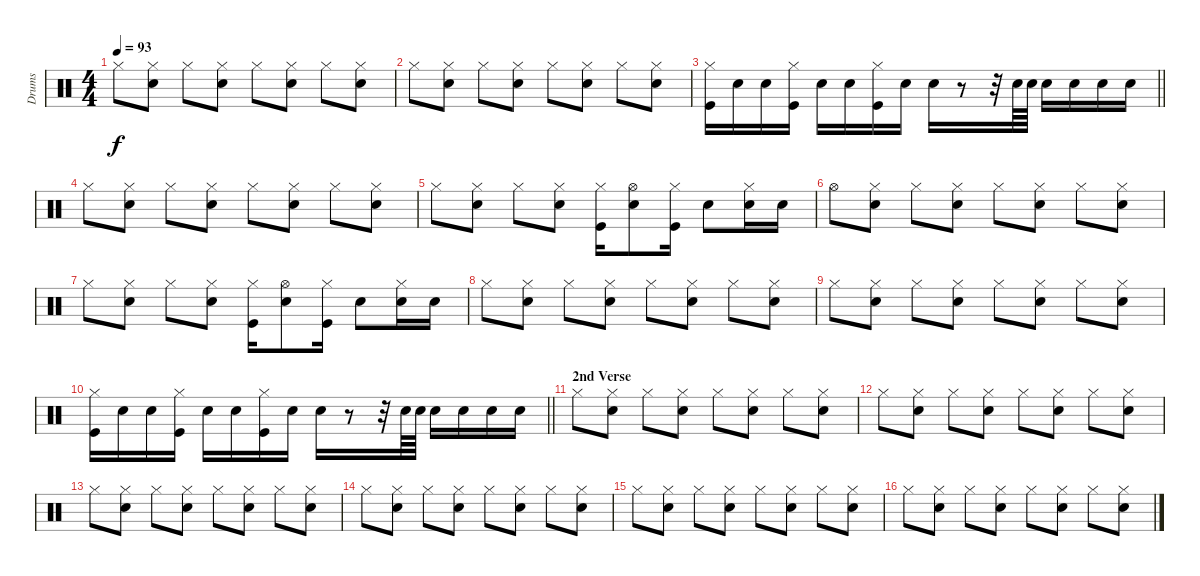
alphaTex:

\track ("Drums" "Drums") {instrument percussion}
\staff {score}
\articulation defaults
\ts (4 4)
\tempo 93
\clef neutral
\ks c "Hi-Hat (closed)".8{dy f}
("Hi-Hat (closed)" "Snare (hit) 2").8 "Hi-Hat (closed)".8 ("Hi-Hat (closed)" "Snare (hit) 2").8 "Hi-Hat (closed)".8 ("Hi-Hat (closed)" "Snare (hit) 2").8 "Hi-Hat (closed)".8 ("Hi-Hat (closed)" "Snare (hit) 2").8 |
"Hi-Hat (closed)".8 ("Hi-Hat (closed)" "Snare (hit) 2").8 "Hi-Hat (closed)".8 ("Hi-Hat (closed)" "Snare (hit) 2").8 "Hi-Hat (closed)".8 ("Hi-Hat (closed)" "Snare (hit) 2").8 "Hi-Hat (closed)".8 ("Hi-Hat (closed)" "Snare (hit) 2").8 |
\barLineRight lightlight
("Hi-Hat (closed)" "Kick (hit)").16 "Electric Snare (hit)".16 "Electric Snare (hit)".16 ("Hi-Hat (closed)" "Kick (hit)").16 "Electric Snare (hit)".16 "Electric Snare (hit)".16 ("Hi-Hat (closed)" "Kick (hit)").16 "Electric Snare (hit)".16 "Electric Snare (hit)".16 r.8 r.32 "Electric Snare (hit)".64 "Electric Snare (hit)".64 "Electric Snare (hit)".16 "Electric Snare (hit)".16 "Electric Snare (hit)".16 "Electric Snare (hit)".16 |
"Hi-Hat (closed)".8 ("Hi-Hat (closed)" "Snare (hit) 2").8 "Hi-Hat (closed)".8 ("Hi-Hat (closed)" "Snare (hit) 2").8 "Hi-Hat (closed)".8 ("Hi-Hat (closed)" "Snare (hit) 2").8 "Hi-Hat (closed)".8 ("Hi-Hat (closed)" "Snare (hit) 2").8 |
"Hi-Hat (closed)".8 ("Hi-Hat (closed)" "Snare (hit) 2").8 "Hi-Hat (closed)".8 ("Hi-Hat (closed)" "Snare (hit) 2").8 ("Hi-Hat (closed)" "Kick (hit)").16 ("Hi-Hat (open)" "Electric Snare (hit)").8 ("Hi-Hat (closed)" "Kick (hit)").16 "Electric Snare (hit)".8 ("Hi-Hat (closed)" "Electric Snare (hit)").16 "Electric Snare (hit)".16 |
"Hi-Hat (open)".8 ("Hi-Hat (closed)" "Snare (hit) 2").8 "Hi-Hat (closed)".8 ("Hi-Hat (closed)" "Snare (hit) 2").8 "Hi-Hat (closed)".8 ("Hi-Hat (closed)" "Snare (hit) 2").8 "Hi-Hat (closed)".8 ("Hi-Hat (closed)" "Snare (hit) 2").8 |
"Hi-Hat (closed)".8 ("Hi-Hat (closed)" "Snare (hit) 2").8 "Hi-Hat (closed)".8 ("Hi-Hat (closed)" "Snare (hit) 2").8 ("Hi-Hat (closed)" "Kick (hit)").16 ("Hi-Hat (open)" "Electric Snare (hit)").8 ("Hi-Hat (closed)" "Kick (hit)").16 "Electric Snare (hit)".8 ("Hi-Hat (closed)" "Electric Snare (hit)").16 "Electric Snare (hit)".16 |
"Hi-Hat (closed)".8 ("Hi-Hat (closed)" "Snare (hit) 2").8 "Hi-Hat (closed)".8 ("Hi-Hat (closed)" "Snare (hit) 2").8 "Hi-Hat (closed)".8 ("Hi-Hat (closed)" "Snare (hit) 2").8 "Hi-Hat (closed)".8 ("Hi-Hat (closed)" "Snare (hit) 2").8 |
"Hi-Hat (closed)".8 ("Hi-Hat (closed)" "Snare (hit) 2").8 "Hi-Hat (closed)".8 ("Hi-Hat (closed)" "Snare (hit) 2").8 "Hi-Hat (closed)".8 ("Hi-Hat (closed)" "Snare (hit) 2").8 "Hi-Hat (closed)".8 ("Hi-Hat (closed)" "Snare (hit) 2").8 |
\barLineRight lightlight
("Hi-Hat (closed)" "Kick (hit)").16 "Electric Snare (hit)".16 "Electric Snare (hit)".16 ("Hi-Hat (closed)" "Kick (hit)").16 "Electric Snare (hit)".16 "Electric Snare (hit)".16 ("Hi-Hat (closed)" "Kick (hit)").16 "Electric Snare (hit)".16 "Electric Snare (hit)".16 r.8 r.32 "Electric Snare (hit)".64 "Electric Snare (hit)".64 "Electric Snare (hit)".16 "Electric Snare (hit)".16 "Electric Snare (hit)".16 "Electric Snare (hit)".16 |
\section ("" "2nd Verse")
"Hi-Hat (closed)".8 ("Hi-Hat (closed)" "Snare (hit) 2").8 "Hi-Hat (closed)".8 ("Hi-Hat (closed)" "Snare (hit) 2").8 "Hi-Hat (closed)".8 ("Hi-Hat (closed)" "Snare (hit) 2").8 "Hi-Hat (closed)".8 ("Hi-Hat (closed)" "Snare (hit) 2").8 |
"Hi-Hat (closed)".8 ("Hi-Hat (closed)" "Snare (hit) 2").8 "Hi-Hat (closed)".8 ("Hi-Hat (closed)" "Snare (hit) 2").8 "Hi-Hat (closed)".8 ("Hi-Hat (closed)" "Snare (hit) 2").8 "Hi-Hat (closed)".8 ("Hi-Hat (closed)" "Snare (hit) 2").8 |
"Hi-Hat (closed)".8 ("Hi-Hat (closed)" "Snare (hit) 2").8 "Hi-Hat (closed)".8 ("Hi-Hat (closed)" "Snare (hit) 2").8 "Hi-Hat (closed)".8 ("Hi-Hat (closed)" "Snare (hit) 2").8 "Hi-Hat (closed)".8 ("Hi-Hat (closed)" "Snare (hit) 2").8 |
"Hi-Hat (closed)".8 ("Hi-Hat (closed)" "Snare (hit) 2").8 "Hi-Hat (closed)".8 ("Hi-Hat (closed)" "Snare (hit) 2").8 "Hi-Hat (closed)".8 ("Hi-Hat (closed)" "Snare (hit) 2").8 "Hi-Hat (closed)".8 ("Hi-Hat (closed)" "Snare (hit) 2").8 |
"Hi-Hat (closed)".8 ("Hi-Hat (closed)" "Snare (hit) 2").8 "Hi-Hat (closed)".8 ("Hi-Hat (closed)" "Snare (hit) 2").8 "Hi-Hat (closed)".8 ("Hi-Hat (closed)" "Snare (hit) 2").8 "Hi-Hat (closed)".8 ("Hi-Hat (closed)" "Snare (hit) 2").8 |
"Hi-Hat (closed)".8 ("Hi-Hat (closed)" "Snare (hit) 2").8 "Hi-Hat (closed)".8 ("Hi-Hat (closed)" "Snare (hit) 2").8 "Hi-Hat (closed)".8 ("Hi-Hat (closed)" "Snare (hit) 2").8 "Hi-Hat (closed)".8 ("Hi-Hat (closed)" "Snare (hit) 2").8
